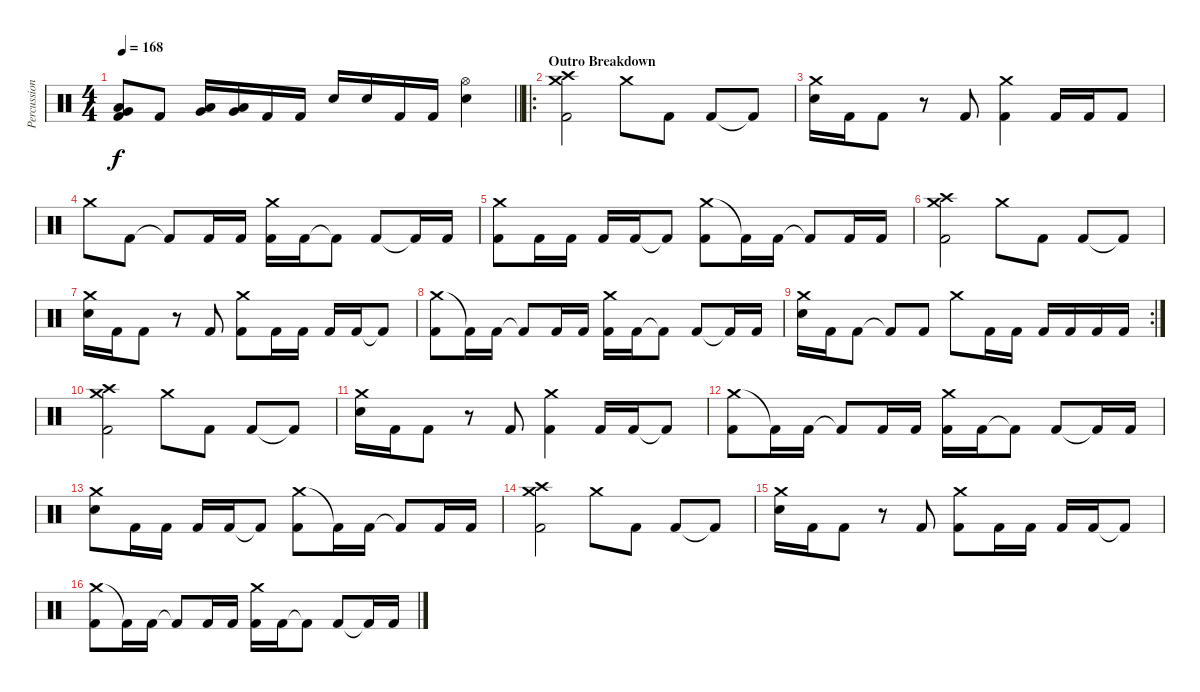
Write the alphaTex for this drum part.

\track ("Percussion" "Percussion") {instrument percussion}
\staff {score}
\articulation defaults
\ts (4 4)
\tempo 168
\clef neutral
\barLineRight lightlight
\ks c
("Very Low Tom (hit)" "Low Floor Tom (hit)" "Kick (hit) 2").8{dy f} "Kick (hit) 2".8 ("Very Low Tom (hit)" "Low Floor Tom (hit)").16 ("Very Low Tom (hit)" "Low Floor Tom (hit)").16 "Kick (hit) 2".16 "Kick (hit) 2".16 "Electric Snare (hit)".16 "Electric Snare (hit)".16 "Kick (hit) 2".16 "Kick (hit) 2".16 ("Hi-Hat (open)" "Electric Snare (hit)").4 |
\ro
\section ("" "Outro Breakdown")
("Crash medium (hit)" "Crash high (hit)" "Kick (hit) 2").2 "Crash medium (hit)".8 "Kick (hit) 2".8 "Kick (hit) 2".8 "Kick (hit) 2"{t}.8 |
("Crash medium (hit)" "Electric Snare (hit)").16 "Kick (hit) 2".16 "Kick (hit) 2".8 r.8 "Kick (hit) 2".8 ("Crash medium (hit)" "Kick (hit) 2").4 "Kick (hit) 2".16 "Kick (hit) 2".16 "Kick (hit) 2".8 |
"Crash medium (hit)".8 "Kick (hit) 2".8 "Kick (hit) 2"{t}.8 "Kick (hit) 2".16 "Kick (hit) 2".16 ("Crash medium (hit)" "Kick (hit) 2").16 "Kick (hit) 2".16 "Kick (hit) 2"{t}.8 "Kick (hit) 2".8 "Kick (hit) 2"{t}.16 "Kick (hit) 2".16 |
("Crash medium (hit)" "Kick (hit) 2").8 "Kick (hit) 2".16 "Kick (hit) 2".16 "Kick (hit) 2".16 "Kick (hit) 2".16 "Kick (hit) 2"{t}.8 ("Crash medium (hit)" "Kick (hit) 2").8 "Kick (hit) 2"{t}.16 "Kick (hit) 2".16 "Kick (hit) 2"{t}.8 "Kick (hit) 2".16 "Kick (hit) 2".16 |
("Crash medium (hit)" "Crash high (hit)" "Kick (hit) 2").2 "Crash medium (hit)".8 "Kick (hit) 2".8 "Kick (hit) 2".8 "Kick (hit) 2"{t}.8 |
("Crash medium (hit)" "Electric Snare (hit)").16 "Kick (hit) 2".16 "Kick (hit) 2".8 r.8 "Kick (hit) 2".8 ("Crash medium (hit)" "Kick (hit) 2").8 "Kick (hit) 2".16 "Kick (hit) 2".16 "Kick (hit) 2".16 "Kick (hit) 2".16 "Kick (hit) 2"{t}.8 |
("Crash medium (hit)" "Kick (hit) 2").8 "Kick (hit) 2"{t}.16 "Kick (hit) 2".16 "Kick (hit) 2"{t}.8 "Kick (hit) 2".16 "Kick (hit) 2".16 ("Crash medium (hit)" "Kick (hit) 2").16 "Kick (hit) 2".16 "Kick (hit) 2"{t}.8 "Kick (hit) 2".8 "Kick (hit) 2"{t}.16 "Kick (hit) 2".16 |
\rc 2
("Crash medium (hit)" "Electric Snare (hit)").16 "Kick (hit) 2".16 "Kick (hit) 2".8 "Kick (hit) 2"{t}.8 "Kick (hit) 2".8 "Crash medium (hit)".8 "Kick (hit) 2".16 "Kick (hit) 2".16 "Kick (hit) 2".16 "Kick (hit) 2".16 "Kick (hit) 2".16 "Kick (hit) 2".16 |
("Crash medium (hit)" "Crash high (hit)" "Kick (hit) 2").2 "Crash medium (hit)".8 "Kick (hit) 2".8 "Kick (hit) 2".8 "Kick (hit) 2"{t}.8 |
("Crash medium (hit)" "Electric Snare (hit)").16 "Kick (hit) 2".16 "Kick (hit) 2".8 r.8 "Kick (hit) 2".8 ("Crash medium (hit)" "Kick (hit) 2").4 "Kick (hit) 2".16 "Kick (hit) 2".16 "Kick (hit) 2"{t}.8 |
("Crash medium (hit)" "Kick (hit) 2").8 "Kick (hit) 2"{t}.16 "Kick (hit) 2".16 "Kick (hit) 2"{t}.8 "Kick (hit) 2".16 "Kick (hit) 2".16 ("Crash medium (hit)" "Kick (hit) 2").16 "Kick (hit) 2".16 "Kick (hit) 2"{t}.8 "Kick (hit) 2".8 "Kick (hit) 2"{t}.16 "Kick (hit) 2".16 |
("Crash medium (hit)" "Electric Snare (hit)").8 "Kick (hit) 2".16 "Kick (hit) 2".16 "Kick (hit) 2".16 "Kick (hit) 2".16 "Kick (hit) 2"{t}.8 ("Crash medium (hit)" "Kick (hit) 2").8 "Kick (hit) 2"{t}.16 "Kick (hit) 2".16 "Kick (hit) 2"{t}.8 "Kick (hit) 2".16 "Kick (hit) 2".16 |
("Crash medium (hit)" "Crash high (hit)" "Kick (hit) 2").2 "Crash medium (hit)".8 "Kick (hit) 2".8 "Kick (hit) 2".8 "Kick (hit) 2"{t}.8 |
("Crash medium (hit)" "Electric Snare (hit)").16 "Kick (hit) 2".16 "Kick (hit) 2".8 r.8 "Kick (hit) 2".8 ("Crash medium (hit)" "Kick (hit) 2").8 "Kick (hit) 2".16 "Kick (hit) 2".16 "Kick (hit) 2".16 "Kick (hit) 2".16 "Kick (hit) 2"{t}.8 |
("Crash medium (hit)" "Kick (hit) 2").8 "Kick (hit) 2"{t}.16 "Kick (hit) 2".16 "Kick (hit) 2"{t}.8 "Kick (hit) 2".16 "Kick (hit) 2".16 ("Crash medium (hit)" "Kick (hit) 2").16 "Kick (hit) 2".16 "Kick (hit) 2"{t}.8 "Kick (hit) 2".8 "Kick (hit) 2"{t}.16 "Kick (hit) 2".16
